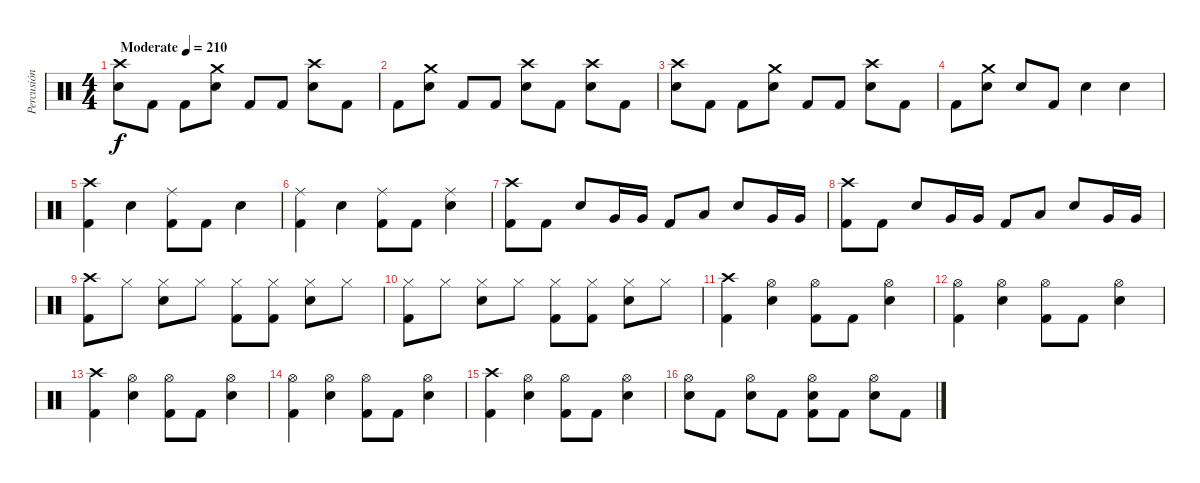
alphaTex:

\track ("Percusión" "Percusión") {instrument percussion}
\staff {score}
\articulation defaults
\ts (4 4)
\tempo (210 "Moderate")
\clef neutral
\ks c
("Crash high (hit)" "Electric Snare (hit)").8{dy f} "Kick (hit) 2".8 "Kick (hit) 2".8 ("Crash medium (hit)" "Electric Snare (hit)").8 "Kick (hit) 2".8 "Kick (hit) 2".8 ("Crash high (hit)" "Electric Snare (hit)").8 "Kick (hit) 2".8 |
"Kick (hit) 2".8 ("Crash medium (hit)" "Electric Snare (hit)").8 "Kick (hit) 2".8 "Kick (hit) 2".8 ("Crash high (hit)" "Electric Snare (hit)").8 "Kick (hit) 2".8 ("Crash high (hit)" "Electric Snare (hit)").8 "Kick (hit) 2".8 |
("Crash high (hit)" "Electric Snare (hit)").8 "Kick (hit) 2".8 "Kick (hit) 2".8 ("Crash medium (hit)" "Electric Snare (hit)").8 "Kick (hit) 2".8 "Kick (hit) 2".8 ("Crash high (hit)" "Electric Snare (hit)").8 "Kick (hit) 2".8 |
"Kick (hit) 2".8 ("Crash medium (hit)" "Electric Snare (hit)").8 "Electric Snare (hit)".8 "Kick (hit) 2".8 "Electric Snare (hit)".4 "Electric Snare (hit)".4 |
("Crash high (hit)" "Kick (hit) 2").4 "Electric Snare (hit)".4 ("Ride (middle)" "Kick (hit) 2").8 "Kick (hit) 2".8 "Electric Snare (hit)".4 |
("Ride (middle)" "Kick (hit) 2").4 "Electric Snare (hit)".4 ("Ride (middle)" "Kick (hit) 2").8 "Kick (hit) 2".8 ("Ride (middle)" "Electric Snare (hit)").4 |
("Crash high (hit)" "Kick (hit) 2").8 "Kick (hit) 2".8 "Electric Snare (hit)".8 "Very Low Tom (hit)".16 "Very Low Tom (hit)".16 "Kick (hit) 2".8 "Low Floor Tom (hit)".8 "Electric Snare (hit)".8 "Very Low Tom (hit)".16 "Very Low Tom (hit)".16 |
("Crash high (hit)" "Kick (hit) 2").8 "Kick (hit) 2".8 "Electric Snare (hit)".8 "Very Low Tom (hit)".16 "Very Low Tom (hit)".16 "Kick (hit) 2".8 "Low Floor Tom (hit)".8 "Electric Snare (hit)".8 "Very Low Tom (hit)".16 "Very Low Tom (hit)".16 |
("Crash high (hit)" "Kick (hit) 2").8 "Hi-Hat (closed)".8 ("Hi-Hat (closed)" "Electric Snare (hit)").8 "Hi-Hat (closed)".8 ("Hi-Hat (closed)" "Kick (hit) 2").8 ("Hi-Hat (closed)" "Kick (hit) 2").8 ("Hi-Hat (closed)" "Electric Snare (hit)").8 "Hi-Hat (closed)".8 |
("Hi-Hat (closed)" "Kick (hit) 2").8 "Hi-Hat (closed)".8 ("Hi-Hat (closed)" "Electric Snare (hit)").8 "Hi-Hat (closed)".8 ("Hi-Hat (closed)" "Kick (hit) 2").8 ("Hi-Hat (closed)" "Kick (hit) 2").8 ("Hi-Hat (closed)" "Electric Snare (hit)").8 "Hi-Hat (closed)".8 |
("Crash high (hit)" "Kick (hit) 2").4 ("Hi-Hat (open)" "Electric Snare (hit)").4 ("Hi-Hat (open)" "Kick (hit) 2").8 "Kick (hit) 2".8 ("Hi-Hat (open)" "Electric Snare (hit)").4 |
("Hi-Hat (open)" "Kick (hit) 2").4 ("Hi-Hat (open)" "Electric Snare (hit)").4 ("Hi-Hat (open)" "Kick (hit) 2").8 "Kick (hit) 2".8 ("Hi-Hat (open)" "Electric Snare (hit)").4 |
("Crash high (hit)" "Kick (hit) 2").4 ("Hi-Hat (open)" "Electric Snare (hit)").4 ("Hi-Hat (open)" "Kick (hit) 2").8 "Kick (hit) 2".8 ("Hi-Hat (open)" "Electric Snare (hit)").4 |
("Hi-Hat (open)" "Kick (hit) 2").4 ("Hi-Hat (open)" "Electric Snare (hit)").4 ("Hi-Hat (open)" "Kick (hit) 2").8 "Kick (hit) 2".8 ("Hi-Hat (open)" "Electric Snare (hit)").4 |
("Crash high (hit)" "Kick (hit) 2").4 ("Hi-Hat (open)" "Electric Snare (hit)").4 ("Hi-Hat (open)" "Kick (hit) 2").8 "Kick (hit) 2".8 ("Hi-Hat (open)" "Electric Snare (hit)").4 |
("Hi-Hat (open)" "Electric Snare (hit)").8 "Kick (hit) 2".8 ("Hi-Hat (open)" "Electric Snare (hit)").8 "Kick (hit) 2".8 ("Hi-Hat (open)" "Electric Snare (hit)" "Kick (hit) 2").8 "Kick (hit) 2".8 ("Hi-Hat (open)" "Electric Snare (hit)").8 "Kick (hit) 2".8
